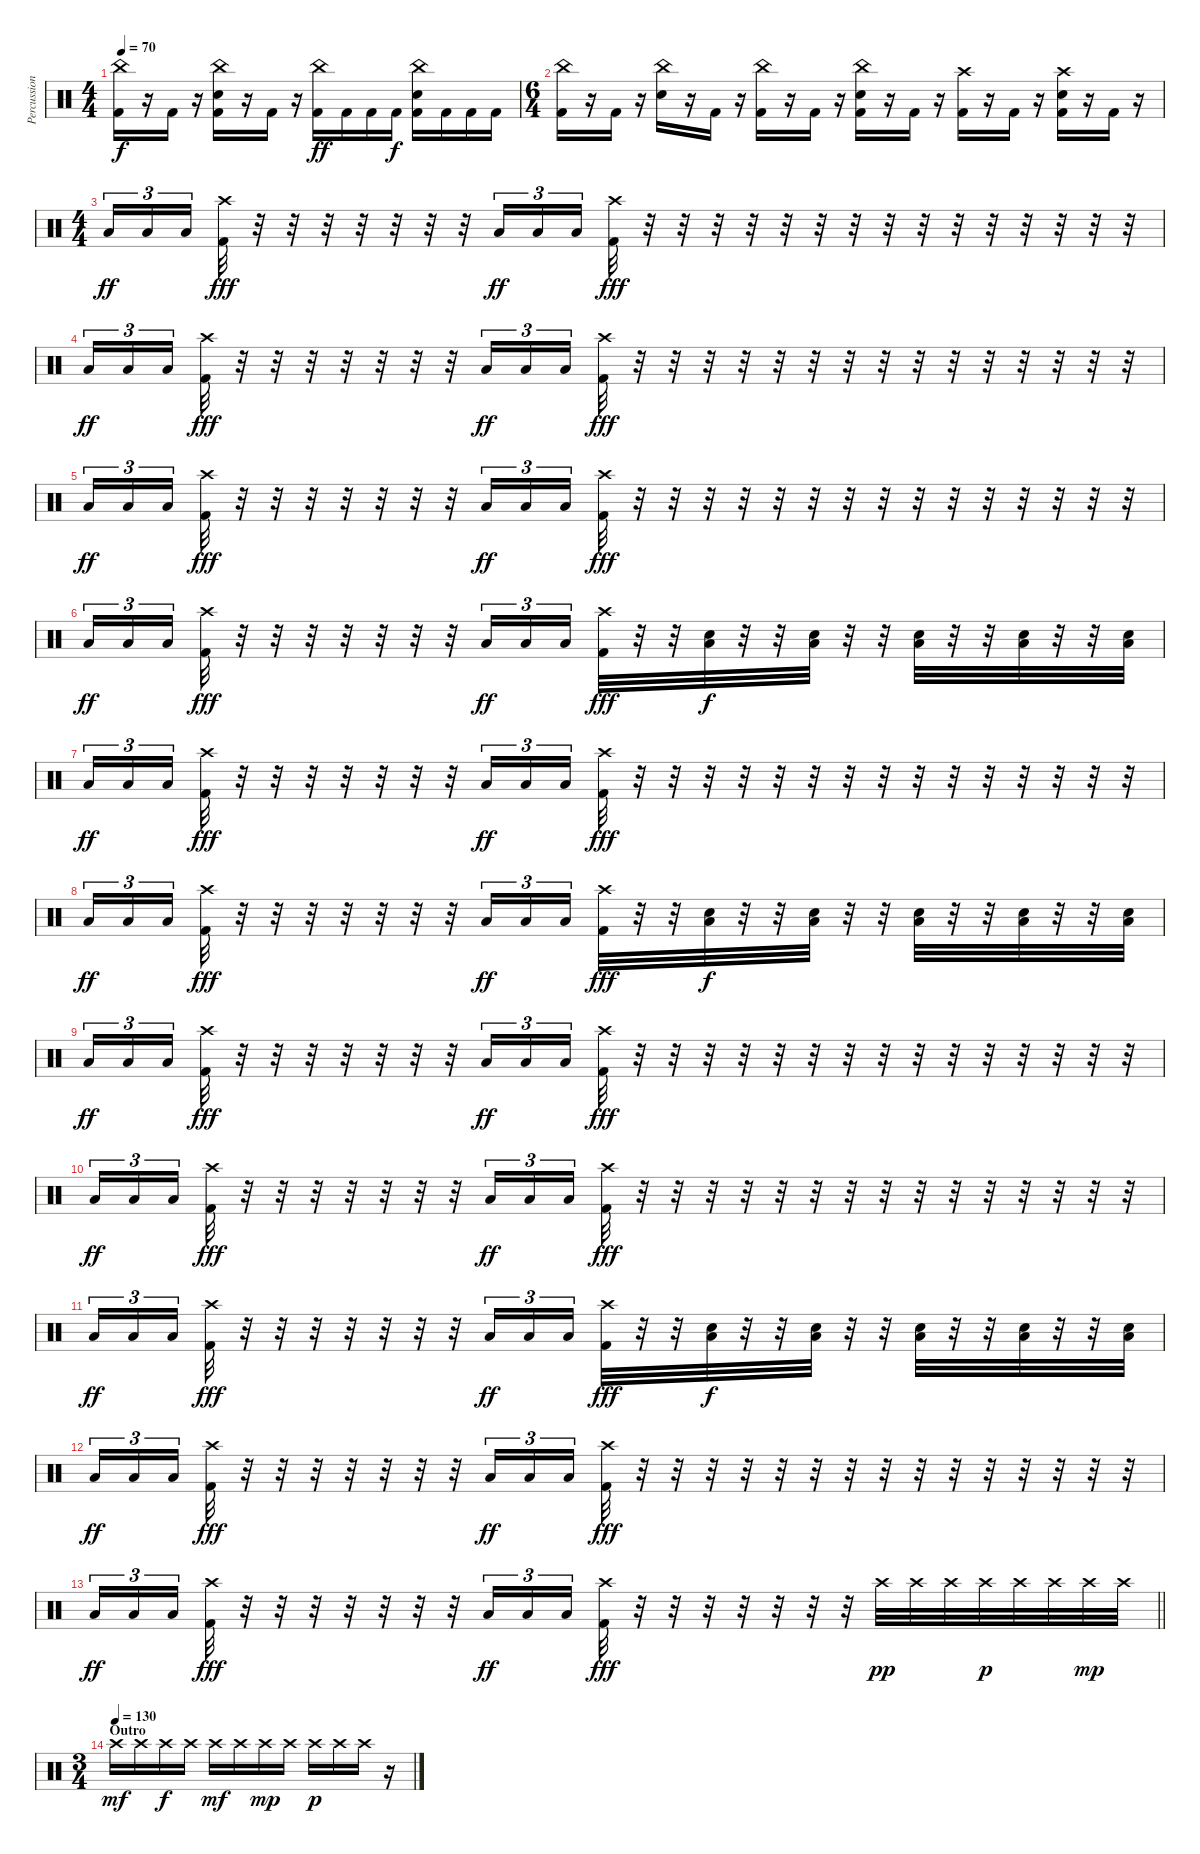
\track ("Percussion" "Percussion") {instrument percussion}
\staff {score}
\articulation defaults
\ts (4 4)
\tempo 70
\clef neutral
\ks c
("China (hit)" "Kick (hit) 2").16{dy f} r.16 "Kick (hit) 2".16 r.16 ("China (hit)" "Electric Snare (hit)" "Kick (hit) 2").16 r.16 "Kick (hit) 2".16 r.16 ("China (hit)" "Kick (hit) 2").16{dy ff} "Kick (hit) 2".16 "Kick (hit) 2".16 "Kick (hit) 2".16{dy f} ("China (hit)" "Electric Snare (hit)" "Kick (hit) 2").16 "Kick (hit) 2".16 "Kick (hit) 2".16 "Kick (hit) 2".16 |
\ts (6 4)
("China (hit)" "Kick (hit) 2").16 r.16 "Kick (hit) 2".16 r.16 ("China (hit)" "Electric Snare (hit)").16 r.16 "Kick (hit) 2".16 r.16 ("China (hit)" "Kick (hit) 2").16 r.16 "Kick (hit) 2".16 r.16 ("China (hit)" "Electric Snare (hit)" "Kick (hit) 2").16 r.16 "Kick (hit) 2".16 r.16 ("Crash high (hit)" "Kick (hit) 2").16 r.16 "Kick (hit) 2".16 r.16 ("Crash high (hit)" "Electric Snare (hit)" "Kick (hit) 2").16 r.16 "Kick (hit) 2".16 r.16 |
\ts (4 4)
"Low Floor Tom (hit)".16{tu (3 2) dy ff} "Low Floor Tom (hit)".16{tu (3 2)} "Low Floor Tom (hit)".16{tu (3 2) beam splitsecondary} ("Crash high (hit)" "Kick (hit) 2").32{dy fff} r.32 r.32 r.32 r.32 r.32 r.32 r.32 "Low Floor Tom (hit)".16{tu (3 2) dy ff} "Low Floor Tom (hit)".16{tu (3 2)} "Low Floor Tom (hit)".16{tu (3 2)} ("Crash high (hit)" "Kick (hit) 2").32{dy fff} r.32 r.32 r.32 r.32 r.32 r.32 r.32 r.32 r.32 r.32 r.32 r.32 r.32 r.32 r.32 |
"Low Floor Tom (hit)".16{tu (3 2) dy ff} "Low Floor Tom (hit)".16{tu (3 2)} "Low Floor Tom (hit)".16{tu (3 2) beam splitsecondary} ("Crash high (hit)" "Kick (hit) 2").32{dy fff} r.32 r.32 r.32 r.32 r.32 r.32 r.32 "Low Floor Tom (hit)".16{tu (3 2) dy ff} "Low Floor Tom (hit)".16{tu (3 2)} "Low Floor Tom (hit)".16{tu (3 2)} ("Crash high (hit)" "Kick (hit) 2").32{dy fff} r.32 r.32 r.32 r.32 r.32 r.32 r.32 r.32 r.32 r.32 r.32 r.32 r.32 r.32 r.32 |
"Low Floor Tom (hit)".16{tu (3 2) dy ff} "Low Floor Tom (hit)".16{tu (3 2)} "Low Floor Tom (hit)".16{tu (3 2) beam splitsecondary} ("Crash high (hit)" "Kick (hit) 2").32{dy fff} r.32 r.32 r.32 r.32 r.32 r.32 r.32 "Low Floor Tom (hit)".16{tu (3 2) dy ff} "Low Floor Tom (hit)".16{tu (3 2)} "Low Floor Tom (hit)".16{tu (3 2)} ("Crash high (hit)" "Kick (hit) 2").32{dy fff} r.32 r.32 r.32 r.32 r.32 r.32 r.32 r.32 r.32 r.32 r.32 r.32 r.32 r.32 r.32 |
"Low Floor Tom (hit)".16{tu (3 2) dy ff} "Low Floor Tom (hit)".16{tu (3 2)} "Low Floor Tom (hit)".16{tu (3 2) beam splitsecondary} ("Crash high (hit)" "Kick (hit) 2").32{dy fff} r.32 r.32 r.32 r.32 r.32 r.32 r.32 "Low Floor Tom (hit)".16{tu (3 2) dy ff} "Low Floor Tom (hit)".16{tu (3 2)} "Low Floor Tom (hit)".16{tu (3 2)} ("Crash high (hit)" "Kick (hit) 2").32{dy fff} r.32 r.32 ("Electric Snare (hit)" "Low Tom (hit)").32{dy f} r.32 r.32 ("Electric Snare (hit)" "Low Tom (hit)").32 r.32 r.32 ("Electric Snare (hit)" "Low Tom (hit)").32 r.32 r.32 ("Electric Snare (hit)" "Low Tom (hit)").32 r.32 r.32 ("Electric Snare (hit)" "Low Tom (hit)").32 |
"Low Floor Tom (hit)".16{tu (3 2) dy ff} "Low Floor Tom (hit)".16{tu (3 2)} "Low Floor Tom (hit)".16{tu (3 2) beam splitsecondary} ("Crash high (hit)" "Kick (hit) 2").32{dy fff} r.32 r.32 r.32 r.32 r.32 r.32 r.32 "Low Floor Tom (hit)".16{tu (3 2) dy ff} "Low Floor Tom (hit)".16{tu (3 2)} "Low Floor Tom (hit)".16{tu (3 2)} ("Crash high (hit)" "Kick (hit) 2").32{dy fff} r.32 r.32 r.32 r.32 r.32 r.32 r.32 r.32 r.32 r.32 r.32 r.32 r.32 r.32 r.32 |
"Low Floor Tom (hit)".16{tu (3 2) dy ff} "Low Floor Tom (hit)".16{tu (3 2)} "Low Floor Tom (hit)".16{tu (3 2) beam splitsecondary} ("Crash high (hit)" "Kick (hit) 2").32{dy fff} r.32 r.32 r.32 r.32 r.32 r.32 r.32 "Low Floor Tom (hit)".16{tu (3 2) dy ff} "Low Floor Tom (hit)".16{tu (3 2)} "Low Floor Tom (hit)".16{tu (3 2)} ("Crash high (hit)" "Kick (hit) 2").32{dy fff} r.32 r.32 ("Electric Snare (hit)" "Low Tom (hit)").32{dy f} r.32 r.32 ("Electric Snare (hit)" "Low Tom (hit)").32 r.32 r.32 ("Electric Snare (hit)" "Low Tom (hit)").32 r.32 r.32 ("Electric Snare (hit)" "Low Tom (hit)").32 r.32 r.32 ("Electric Snare (hit)" "Low Tom (hit)").32 |
"Low Floor Tom (hit)".16{tu (3 2) dy ff} "Low Floor Tom (hit)".16{tu (3 2)} "Low Floor Tom (hit)".16{tu (3 2) beam splitsecondary} ("Crash high (hit)" "Kick (hit) 2").32{dy fff} r.32 r.32 r.32 r.32 r.32 r.32 r.32 "Low Floor Tom (hit)".16{tu (3 2) dy ff} "Low Floor Tom (hit)".16{tu (3 2)} "Low Floor Tom (hit)".16{tu (3 2)} ("Crash high (hit)" "Kick (hit) 2").32{dy fff} r.32 r.32 r.32 r.32 r.32 r.32 r.32 r.32 r.32 r.32 r.32 r.32 r.32 r.32 r.32 |
"Low Floor Tom (hit)".16{tu (3 2) dy ff} "Low Floor Tom (hit)".16{tu (3 2)} "Low Floor Tom (hit)".16{tu (3 2) beam splitsecondary} ("Crash high (hit)" "Kick (hit) 2").32{dy fff} r.32 r.32 r.32 r.32 r.32 r.32 r.32 "Low Floor Tom (hit)".16{tu (3 2) dy ff} "Low Floor Tom (hit)".16{tu (3 2)} "Low Floor Tom (hit)".16{tu (3 2)} ("Crash high (hit)" "Kick (hit) 2").32{dy fff} r.32 r.32 r.32 r.32 r.32 r.32 r.32 r.32 r.32 r.32 r.32 r.32 r.32 r.32 r.32 |
"Low Floor Tom (hit)".16{tu (3 2) dy ff} "Low Floor Tom (hit)".16{tu (3 2)} "Low Floor Tom (hit)".16{tu (3 2) beam splitsecondary} ("Crash high (hit)" "Kick (hit) 2").32{dy fff} r.32 r.32 r.32 r.32 r.32 r.32 r.32 "Low Floor Tom (hit)".16{tu (3 2) dy ff} "Low Floor Tom (hit)".16{tu (3 2)} "Low Floor Tom (hit)".16{tu (3 2)} ("Crash high (hit)" "Kick (hit) 2").32{dy fff} r.32 r.32 ("Electric Snare (hit)" "Low Tom (hit)").32{dy f} r.32 r.32 ("Electric Snare (hit)" "Low Tom (hit)").32 r.32 r.32 ("Electric Snare (hit)" "Low Tom (hit)").32 r.32 r.32 ("Electric Snare (hit)" "Low Tom (hit)").32 r.32 r.32 ("Electric Snare (hit)" "Low Tom (hit)").32 |
"Low Floor Tom (hit)".16{tu (3 2) dy ff} "Low Floor Tom (hit)".16{tu (3 2)} "Low Floor Tom (hit)".16{tu (3 2) beam splitsecondary} ("Crash high (hit)" "Kick (hit) 2").32{dy fff} r.32 r.32 r.32 r.32 r.32 r.32 r.32 "Low Floor Tom (hit)".16{tu (3 2) dy ff} "Low Floor Tom (hit)".16{tu (3 2)} "Low Floor Tom (hit)".16{tu (3 2)} ("Crash high (hit)" "Kick (hit) 2").32{dy fff} r.32 r.32 r.32 r.32 r.32 r.32 r.32 r.32 r.32 r.32 r.32 r.32 r.32 r.32 r.32 |
\barLineRight lightlight "Low Floor Tom (hit)".16{tu (3 2) dy ff} "Low Floor Tom (hit)".16{tu (3 2)} "Low Floor Tom (hit)".16{tu (3 2) beam splitsecondary}
("Crash high (hit)" "Kick (hit) 2").32{dy fff} r.32 r.32 r.32 r.32 r.32 r.32 r.32 "Low Floor Tom (hit)".16{tu (3 2) dy ff} "Low Floor Tom (hit)".16{tu (3 2)} "Low Floor Tom (hit)".16{tu (3 2)} ("Crash high (hit)" "Kick (hit) 2").32{dy fff} r.32 r.32 r.32 r.32 r.32 r.32 r.32 "Crash high (hit)".32{dy pp} "Crash high (hit)".32 "Crash high (hit)".32 "Crash high (hit)".32{dy p} "Crash high (hit)".32 "Crash high (hit)".32 "Crash high (hit)".32{dy mp} "Crash high (hit)".32 |
\ts (3 4)
\section ("" "Outro")
\tempo (130)
"Crash high (hit)".16{dy mf} "Crash high (hit)".16 "Crash high (hit)".16{dy f} "Crash high (hit)".16 "Crash high (hit)".16{dy mf} "Crash high (hit)".16 "Crash high (hit)".16{dy mp} "Crash high (hit)".16 "Crash high (hit)".16{dy p} "Crash high (hit)".16 "Crash high (hit)".16 r.16
